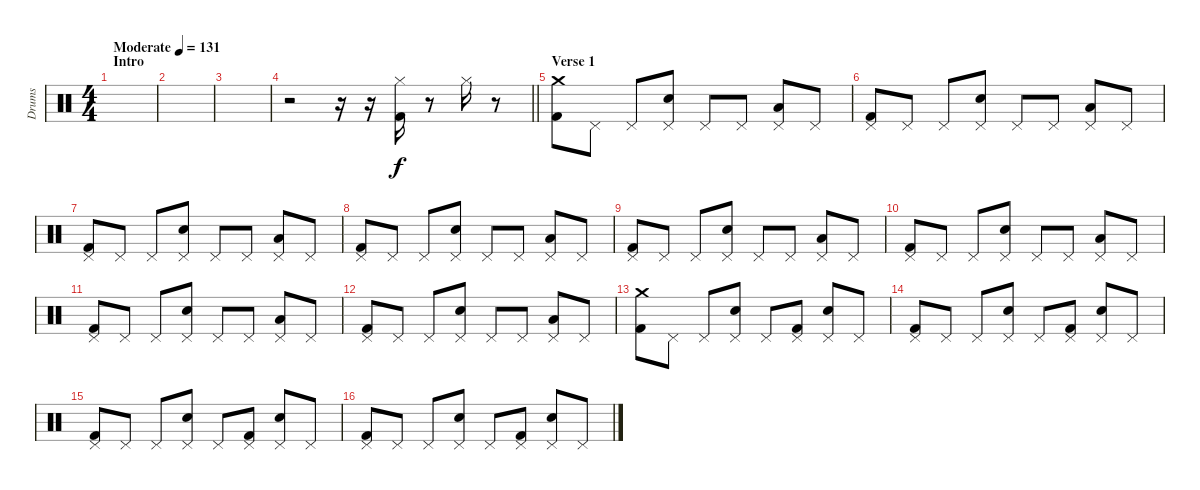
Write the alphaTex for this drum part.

\track ("Drums" "Drums") {instrument percussion}
\staff {score}
\articulation defaults
\ts (4 4)
\section ("" "Intro")
\tempo (131 "Moderate")
\clef neutral
\ks c
|
|
|
\barLineRight lightlight
r.2 r.16 r.16 ("Hi-Hat (closed)" "Kick (hit) 2").16 r.8 "Hi-Hat (closed)".16 r.8 |
\section ("" "Verse 1")
("Crash medium (hit)" "Kick (hit) 2").8 "Pedal Hi-Hat (hit)".8 "Pedal Hi-Hat (hit)".8 ("Pedal Hi-Hat (hit)" "Electric Snare (hit)").8 "Pedal Hi-Hat (hit)".8 "Pedal Hi-Hat (hit)".8 ("Pedal Hi-Hat (hit)" "Low Floor Tom (hit)").8 "Pedal Hi-Hat (hit)".8 |
("Pedal Hi-Hat (hit)" "Kick (hit) 2").8 "Pedal Hi-Hat (hit)".8 "Pedal Hi-Hat (hit)".8 ("Pedal Hi-Hat (hit)" "Electric Snare (hit)").8 "Pedal Hi-Hat (hit)".8 "Pedal Hi-Hat (hit)".8 ("Pedal Hi-Hat (hit)" "Low Floor Tom (hit)").8 "Pedal Hi-Hat (hit)".8 |
("Pedal Hi-Hat (hit)" "Kick (hit) 2").8 "Pedal Hi-Hat (hit)".8 "Pedal Hi-Hat (hit)".8 ("Pedal Hi-Hat (hit)" "Electric Snare (hit)").8 "Pedal Hi-Hat (hit)".8 "Pedal Hi-Hat (hit)".8 ("Pedal Hi-Hat (hit)" "Low Floor Tom (hit)").8 "Pedal Hi-Hat (hit)".8 |
("Pedal Hi-Hat (hit)" "Kick (hit) 2").8 "Pedal Hi-Hat (hit)".8 "Pedal Hi-Hat (hit)".8 ("Pedal Hi-Hat (hit)" "Electric Snare (hit)").8 "Pedal Hi-Hat (hit)".8 "Pedal Hi-Hat (hit)".8 ("Pedal Hi-Hat (hit)" "Low Floor Tom (hit)").8 "Pedal Hi-Hat (hit)".8 |
("Pedal Hi-Hat (hit)" "Kick (hit) 2").8 "Pedal Hi-Hat (hit)".8 "Pedal Hi-Hat (hit)".8 ("Pedal Hi-Hat (hit)" "Electric Snare (hit)").8 "Pedal Hi-Hat (hit)".8 "Pedal Hi-Hat (hit)".8 ("Pedal Hi-Hat (hit)" "Low Floor Tom (hit)").8 "Pedal Hi-Hat (hit)".8 |
("Pedal Hi-Hat (hit)" "Kick (hit) 2").8 "Pedal Hi-Hat (hit)".8 "Pedal Hi-Hat (hit)".8 ("Pedal Hi-Hat (hit)" "Electric Snare (hit)").8 "Pedal Hi-Hat (hit)".8 "Pedal Hi-Hat (hit)".8 ("Pedal Hi-Hat (hit)" "Low Floor Tom (hit)").8 "Pedal Hi-Hat (hit)".8 |
("Pedal Hi-Hat (hit)" "Kick (hit) 2").8 "Pedal Hi-Hat (hit)".8 "Pedal Hi-Hat (hit)".8 ("Pedal Hi-Hat (hit)" "Electric Snare (hit)").8 "Pedal Hi-Hat (hit)".8 "Pedal Hi-Hat (hit)".8 ("Pedal Hi-Hat (hit)" "Low Floor Tom (hit)").8 "Pedal Hi-Hat (hit)".8 |
("Pedal Hi-Hat (hit)" "Kick (hit) 2").8 "Pedal Hi-Hat (hit)".8 "Pedal Hi-Hat (hit)".8 ("Pedal Hi-Hat (hit)" "Electric Snare (hit)").8 "Pedal Hi-Hat (hit)".8 "Pedal Hi-Hat (hit)".8 ("Pedal Hi-Hat (hit)" "Low Floor Tom (hit)").8 "Pedal Hi-Hat (hit)".8 |
("Crash medium (hit)" "Kick (hit) 2").8 "Pedal Hi-Hat (hit)".8 "Pedal Hi-Hat (hit)".8 ("Pedal Hi-Hat (hit)" "Electric Snare (hit)").8 "Pedal Hi-Hat (hit)".8 ("Pedal Hi-Hat (hit)" "Kick (hit) 2").8 ("Pedal Hi-Hat (hit)" "Electric Snare (hit)").8 "Pedal Hi-Hat (hit)".8 |
("Pedal Hi-Hat (hit)" "Kick (hit) 2").8 "Pedal Hi-Hat (hit)".8 "Pedal Hi-Hat (hit)".8 ("Pedal Hi-Hat (hit)" "Electric Snare (hit)").8 "Pedal Hi-Hat (hit)".8 ("Pedal Hi-Hat (hit)" "Kick (hit) 2").8 ("Pedal Hi-Hat (hit)" "Electric Snare (hit)").8 "Pedal Hi-Hat (hit)".8 |
("Pedal Hi-Hat (hit)" "Kick (hit) 2").8 "Pedal Hi-Hat (hit)".8 "Pedal Hi-Hat (hit)".8 ("Pedal Hi-Hat (hit)" "Electric Snare (hit)").8 "Pedal Hi-Hat (hit)".8 ("Pedal Hi-Hat (hit)" "Kick (hit) 2").8 ("Pedal Hi-Hat (hit)" "Electric Snare (hit)").8 "Pedal Hi-Hat (hit)".8 |
("Pedal Hi-Hat (hit)" "Kick (hit) 2").8 "Pedal Hi-Hat (hit)".8 "Pedal Hi-Hat (hit)".8 ("Pedal Hi-Hat (hit)" "Electric Snare (hit)").8 "Pedal Hi-Hat (hit)".8 ("Pedal Hi-Hat (hit)" "Kick (hit) 2").8 ("Pedal Hi-Hat (hit)" "Electric Snare (hit)").8 "Pedal Hi-Hat (hit)".8
